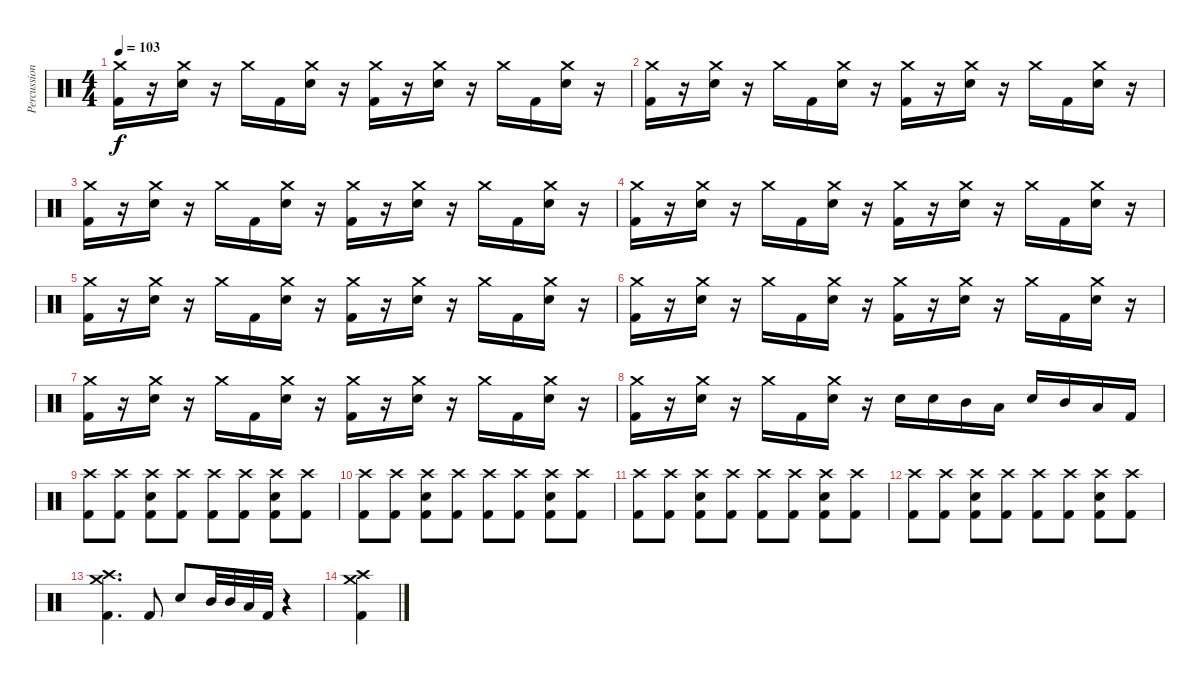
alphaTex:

\track ("Percussion" "Percussion") {instrument percussion}
\staff {score}
\articulation defaults
\ts (4 4)
\tempo 103
\clef neutral
\ks c
("Crash medium (hit)" "Kick (hit) 2").16{dy f} r.16 ("Crash medium (hit)" "Electric Snare (hit)").16 r.16 "Crash medium (hit)".16 "Kick (hit) 2".16 ("Crash medium (hit)" "Electric Snare (hit)").16 r.16 ("Crash medium (hit)" "Kick (hit) 2").16 r.16 ("Crash medium (hit)" "Electric Snare (hit)").16 r.16 "Crash medium (hit)".16 "Kick (hit) 2".16 ("Crash medium (hit)" "Electric Snare (hit)").16 r.16 |
("Crash medium (hit)" "Kick (hit) 2").16 r.16 ("Crash medium (hit)" "Electric Snare (hit)").16 r.16 "Crash medium (hit)".16 "Kick (hit) 2".16 ("Crash medium (hit)" "Electric Snare (hit)").16 r.16 ("Crash medium (hit)" "Kick (hit) 2").16 r.16 ("Crash medium (hit)" "Electric Snare (hit)").16 r.16 "Crash medium (hit)".16 "Kick (hit) 2".16 ("Crash medium (hit)" "Electric Snare (hit)").16 r.16 |
("Crash medium (hit)" "Kick (hit) 2").16 r.16 ("Crash medium (hit)" "Electric Snare (hit)").16 r.16 "Crash medium (hit)".16 "Kick (hit) 2".16 ("Crash medium (hit)" "Electric Snare (hit)").16 r.16 ("Crash medium (hit)" "Kick (hit) 2").16 r.16 ("Crash medium (hit)" "Electric Snare (hit)").16 r.16 "Crash medium (hit)".16 "Kick (hit) 2".16 ("Crash medium (hit)" "Electric Snare (hit)").16 r.16 |
("Crash medium (hit)" "Kick (hit) 2").16 r.16 ("Crash medium (hit)" "Electric Snare (hit)").16 r.16 "Crash medium (hit)".16 "Kick (hit) 2".16 ("Crash medium (hit)" "Electric Snare (hit)").16 r.16 ("Crash medium (hit)" "Kick (hit) 2").16 r.16 ("Crash medium (hit)" "Electric Snare (hit)").16 r.16 "Crash medium (hit)".16 "Kick (hit) 2".16 ("Crash medium (hit)" "Electric Snare (hit)").16 r.16 |
("Crash medium (hit)" "Kick (hit) 2").16 r.16 ("Crash medium (hit)" "Electric Snare (hit)").16 r.16 "Crash medium (hit)".16 "Kick (hit) 2".16 ("Crash medium (hit)" "Electric Snare (hit)").16 r.16 ("Crash medium (hit)" "Kick (hit) 2").16 r.16 ("Crash medium (hit)" "Electric Snare (hit)").16 r.16 "Crash medium (hit)".16 "Kick (hit) 2".16 ("Crash medium (hit)" "Electric Snare (hit)").16 r.16 |
("Crash medium (hit)" "Kick (hit) 2").16 r.16 ("Crash medium (hit)" "Electric Snare (hit)").16 r.16 "Crash medium (hit)".16 "Kick (hit) 2".16 ("Crash medium (hit)" "Electric Snare (hit)").16 r.16 ("Crash medium (hit)" "Kick (hit) 2").16 r.16 ("Crash medium (hit)" "Electric Snare (hit)").16 r.16 "Crash medium (hit)".16 "Kick (hit) 2".16 ("Crash medium (hit)" "Electric Snare (hit)").16 r.16 |
("Crash medium (hit)" "Kick (hit) 2").16 r.16 ("Crash medium (hit)" "Electric Snare (hit)").16 r.16 "Crash medium (hit)".16 "Kick (hit) 2".16 ("Crash medium (hit)" "Electric Snare (hit)").16 r.16 ("Crash medium (hit)" "Kick (hit) 2").16 r.16 ("Crash medium (hit)" "Electric Snare (hit)").16 r.16 "Crash medium (hit)".16 "Kick (hit) 2".16 ("Crash medium (hit)" "Electric Snare (hit)").16 r.16 |
("Crash medium (hit)" "Kick (hit) 2").16 r.16 ("Crash medium (hit)" "Electric Snare (hit)").16 r.16 "Crash medium (hit)".16 "Kick (hit) 2".16 ("Crash medium (hit)" "Electric Snare (hit)").16 r.16 "Electric Snare (hit)".16 "Electric Snare (hit)".16 "Mid Tom (hit)".16 "Low Tom (hit)".16 "Electric Snare (hit)".16 "Mid Tom (hit)".16 "Low Tom (hit)".16 "Kick (hit) 2".16 |
("Crash high (hit)" "Kick (hit) 2").8 ("Crash high (hit)" "Kick (hit) 2").8 ("Crash high (hit)" "Electric Snare (hit)" "Kick (hit) 2").8 ("Crash high (hit)" "Kick (hit) 2").8 ("Crash high (hit)" "Kick (hit) 2").8 ("Crash high (hit)" "Kick (hit) 2").8 ("Crash high (hit)" "Electric Snare (hit)" "Kick (hit) 2").8 ("Crash high (hit)" "Kick (hit) 2").8 |
("Crash high (hit)" "Kick (hit) 2").8 ("Crash high (hit)" "Kick (hit) 2").8 ("Crash high (hit)" "Electric Snare (hit)" "Kick (hit) 2").8 ("Crash high (hit)" "Kick (hit) 2").8 ("Crash high (hit)" "Kick (hit) 2").8 ("Crash high (hit)" "Kick (hit) 2").8 ("Crash high (hit)" "Electric Snare (hit)" "Kick (hit) 2").8 ("Crash high (hit)" "Kick (hit) 2").8 |
("Crash high (hit)" "Kick (hit) 2").8 ("Crash high (hit)" "Kick (hit) 2").8 ("Crash high (hit)" "Electric Snare (hit)" "Kick (hit) 2").8 ("Crash high (hit)" "Kick (hit) 2").8 ("Crash high (hit)" "Kick (hit) 2").8 ("Crash high (hit)" "Kick (hit) 2").8 ("Crash high (hit)" "Electric Snare (hit)" "Kick (hit) 2").8 ("Crash high (hit)" "Kick (hit) 2").8 |
("Crash high (hit)" "Kick (hit) 2").8 ("Crash high (hit)" "Kick (hit) 2").8 ("Crash high (hit)" "Electric Snare (hit)" "Kick (hit) 2").8 ("Crash high (hit)" "Kick (hit) 2").8 ("Crash high (hit)" "Kick (hit) 2").8 ("Crash high (hit)" "Kick (hit) 2").8 ("Crash high (hit)" "Electric Snare (hit)" "Kick (hit) 2").8 ("Crash high (hit)" "Kick (hit) 2").8 |
("Crash high (hit)" "Crash medium (hit)" "Kick (hit) 2").4{d} "Kick (hit) 2".8 "Electric Snare (hit)".8 "Mid Tom (hit)".32 "Mid Tom (hit)".32 "Low Tom (hit)".32 "Kick (hit) 2".32 r.4 |
("Crash high (hit)" "Crash medium (hit)" "Kick (hit) 2").4
